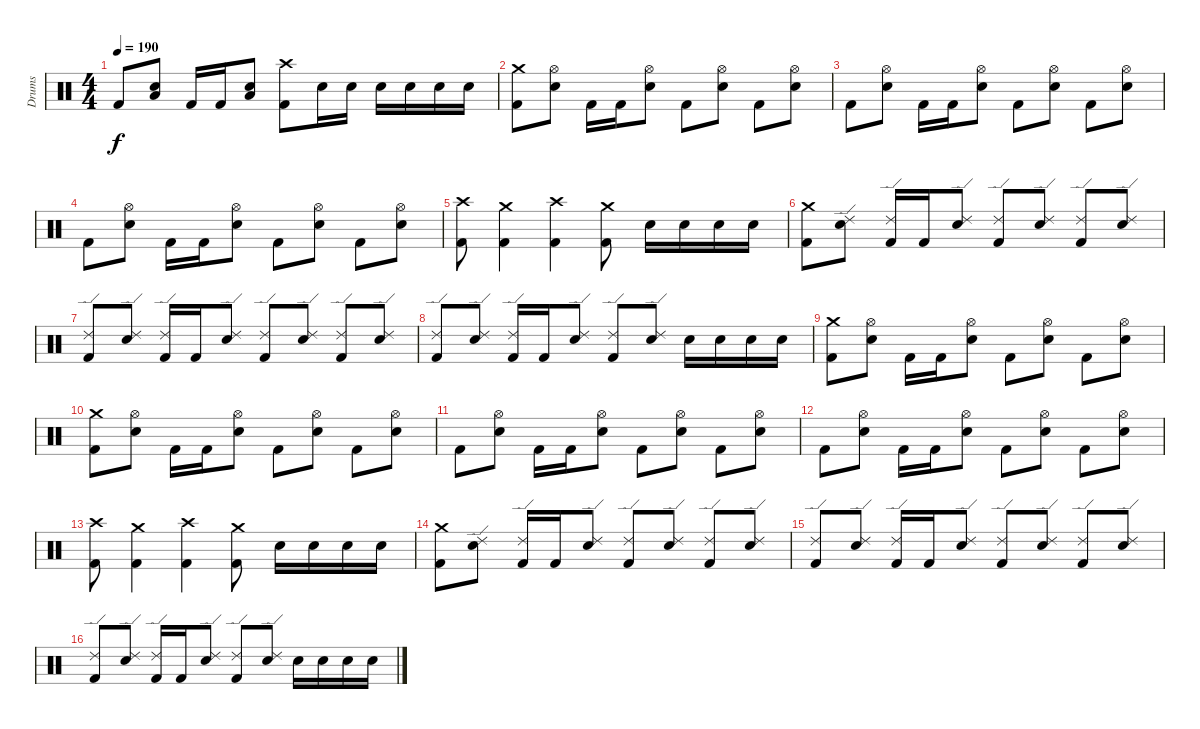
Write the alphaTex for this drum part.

\track ("Drums" "Drums") {instrument percussion}
\staff {score}
\articulation defaults
\ts (4 4)
\tempo 190
\clef neutral
\ks c "Kick (hit) 2".8{dy f}
("Low Tom (hit)" "Electric Snare (hit)").8 "Kick (hit) 2".16 "Kick (hit) 2".16 ("Low Tom (hit)" "Electric Snare (hit)").8 ("Crash high (hit)" "Kick (hit) 2").8 "Electric Snare (hit)".16 "Electric Snare (hit)".16 "Electric Snare (hit)".16 "Electric Snare (hit)".16 "Electric Snare (hit)".16 "Electric Snare (hit)".16 |
("Crash medium (hit)" "Kick (hit) 2").8 ("Hi-Hat (open)" "Electric Snare (hit)").8 "Kick (hit) 2".16 "Kick (hit) 2".16 ("Hi-Hat (open)" "Electric Snare (hit)").8 "Kick (hit) 2".8 ("Hi-Hat (open)" "Electric Snare (hit)").8 "Kick (hit) 2".8 ("Hi-Hat (open)" "Electric Snare (hit)").8 |
"Kick (hit) 2".8 ("Hi-Hat (open)" "Electric Snare (hit)").8 "Kick (hit) 2".16 "Kick (hit) 2".16 ("Hi-Hat (open)" "Electric Snare (hit)").8 "Kick (hit) 2".8 ("Hi-Hat (open)" "Electric Snare (hit)").8 "Kick (hit) 2".8 ("Hi-Hat (open)" "Electric Snare (hit)").8 |
"Kick (hit) 2".8 ("Hi-Hat (open)" "Electric Snare (hit)").8 "Kick (hit) 2".16 "Kick (hit) 2".16 ("Hi-Hat (open)" "Electric Snare (hit)").8 "Kick (hit) 2".8 ("Hi-Hat (open)" "Electric Snare (hit)").8 "Kick (hit) 2".8 ("Hi-Hat (open)" "Electric Snare (hit)").8 |
("Crash high (hit)" "Kick (hit) 2").8 ("Crash medium (hit)" "Kick (hit) 2").4 ("Crash high (hit)" "Kick (hit) 2").4 ("Crash medium (hit)" "Kick (hit) 2").8 "Electric Snare (hit)".16 "Electric Snare (hit)".16 "Electric Snare (hit)".16 "Electric Snare (hit)".16 |
("Crash medium (hit)" "Kick (hit) 2").8 ("Ride (edge) 2" "Electric Snare (hit)").8 ("Ride (edge) 2" "Kick (hit) 2").16 "Kick (hit) 2".16 ("Ride (edge) 2" "Electric Snare (hit)").8 ("Ride (edge) 2" "Kick (hit) 2").8 ("Ride (edge) 2" "Electric Snare (hit)").8 ("Ride (edge) 2" "Kick (hit) 2").8 ("Ride (edge) 2" "Electric Snare (hit)").8 |
("Ride (edge) 2" "Kick (hit) 2").8 ("Ride (edge) 2" "Electric Snare (hit)").8 ("Ride (edge) 2" "Kick (hit) 2").16 "Kick (hit) 2".16 ("Ride (edge) 2" "Electric Snare (hit)").8 ("Ride (edge) 2" "Kick (hit) 2").8 ("Ride (edge) 2" "Electric Snare (hit)").8 ("Ride (edge) 2" "Kick (hit) 2").8 ("Ride (edge) 2" "Electric Snare (hit)").8 |
("Ride (edge) 2" "Kick (hit) 2").8 ("Ride (edge) 2" "Electric Snare (hit)").8 ("Ride (edge) 2" "Kick (hit) 2").16 "Kick (hit) 2".16 ("Ride (edge) 2" "Electric Snare (hit)").8 ("Ride (edge) 2" "Kick (hit) 2").8 ("Ride (edge) 2" "Electric Snare (hit)").8 "Electric Snare (hit)".16 "Electric Snare (hit)".16 "Electric Snare (hit)".16 "Electric Snare (hit)".16 |
("Crash medium (hit)" "Kick (hit) 2").8 ("Hi-Hat (open)" "Electric Snare (hit)").8 "Kick (hit) 2".16 "Kick (hit) 2".16 ("Hi-Hat (open)" "Electric Snare (hit)").8 "Kick (hit) 2".8 ("Hi-Hat (open)" "Electric Snare (hit)").8 "Kick (hit) 2".8 ("Hi-Hat (open)" "Electric Snare (hit)").8 |
("Crash medium (hit)" "Kick (hit) 2").8 ("Hi-Hat (open)" "Electric Snare (hit)").8 "Kick (hit) 2".16 "Kick (hit) 2".16 ("Hi-Hat (open)" "Electric Snare (hit)").8 "Kick (hit) 2".8 ("Hi-Hat (open)" "Electric Snare (hit)").8 "Kick (hit) 2".8 ("Hi-Hat (open)" "Electric Snare (hit)").8 |
"Kick (hit) 2".8 ("Hi-Hat (open)" "Electric Snare (hit)").8 "Kick (hit) 2".16 "Kick (hit) 2".16 ("Hi-Hat (open)" "Electric Snare (hit)").8 "Kick (hit) 2".8 ("Hi-Hat (open)" "Electric Snare (hit)").8 "Kick (hit) 2".8 ("Hi-Hat (open)" "Electric Snare (hit)").8 |
"Kick (hit) 2".8 ("Hi-Hat (open)" "Electric Snare (hit)").8 "Kick (hit) 2".16 "Kick (hit) 2".16 ("Hi-Hat (open)" "Electric Snare (hit)").8 "Kick (hit) 2".8 ("Hi-Hat (open)" "Electric Snare (hit)").8 "Kick (hit) 2".8 ("Hi-Hat (open)" "Electric Snare (hit)").8 |
("Crash high (hit)" "Kick (hit) 2").8 ("Crash medium (hit)" "Kick (hit) 2").4 ("Crash high (hit)" "Kick (hit) 2").4 ("Crash medium (hit)" "Kick (hit) 2").8 "Electric Snare (hit)".16 "Electric Snare (hit)".16 "Electric Snare (hit)".16 "Electric Snare (hit)".16 |
("Crash medium (hit)" "Kick (hit) 2").8 ("Ride (edge) 2" "Electric Snare (hit)").8 ("Ride (edge) 2" "Kick (hit) 2").16 "Kick (hit) 2".16 ("Ride (edge) 2" "Electric Snare (hit)").8 ("Ride (edge) 2" "Kick (hit) 2").8 ("Ride (edge) 2" "Electric Snare (hit)").8 ("Ride (edge) 2" "Kick (hit) 2").8 ("Ride (edge) 2" "Electric Snare (hit)").8 |
("Ride (edge) 2" "Kick (hit) 2").8 ("Ride (edge) 2" "Electric Snare (hit)").8 ("Ride (edge) 2" "Kick (hit) 2").16 "Kick (hit) 2".16 ("Ride (edge) 2" "Electric Snare (hit)").8 ("Ride (edge) 2" "Kick (hit) 2").8 ("Ride (edge) 2" "Electric Snare (hit)").8 ("Ride (edge) 2" "Kick (hit) 2").8 ("Ride (edge) 2" "Electric Snare (hit)").8 |
("Ride (edge) 2" "Kick (hit) 2").8 ("Ride (edge) 2" "Electric Snare (hit)").8 ("Ride (edge) 2" "Kick (hit) 2").16 "Kick (hit) 2".16 ("Ride (edge) 2" "Electric Snare (hit)").8 ("Ride (edge) 2" "Kick (hit) 2").8 ("Ride (edge) 2" "Electric Snare (hit)").8 "Electric Snare (hit)".16 "Electric Snare (hit)".16 "Electric Snare (hit)".16 "Electric Snare (hit)".16
